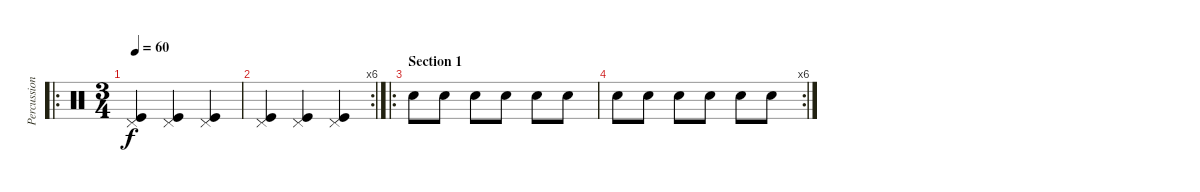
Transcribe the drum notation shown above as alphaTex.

\track ("Percussions" "Percussion") {instrument percussion}
\staff {score}
\articulation defaults
\ro
\ts (3 4)
\tempo 60
\clef neutral
\ks c
("Pedal Hi-Hat (hit)" "Kick (hit)").4{dy f} ("Pedal Hi-Hat (hit)" "Kick (hit)").4 ("Pedal Hi-Hat (hit)" "Kick (hit)").4 |
\rc 6
("Pedal Hi-Hat (hit)" "Kick (hit)").4 ("Pedal Hi-Hat (hit)" "Kick (hit)").4 ("Pedal Hi-Hat (hit)" "Kick (hit)").4 |
\ro
\section ("" "Section 1")
"Snare (hit) 2".8 "Snare (hit) 2".8 "Snare (hit) 2".8 "Snare (hit) 2".8 "Snare (hit) 2".8 "Snare (hit) 2".8 |
\rc 6 "Snare (hit) 2".8 "Snare (hit) 2".8 "Snare (hit) 2".8 "Snare (hit) 2".8 "Snare (hit) 2".8 "Snare (hit) 2".8
